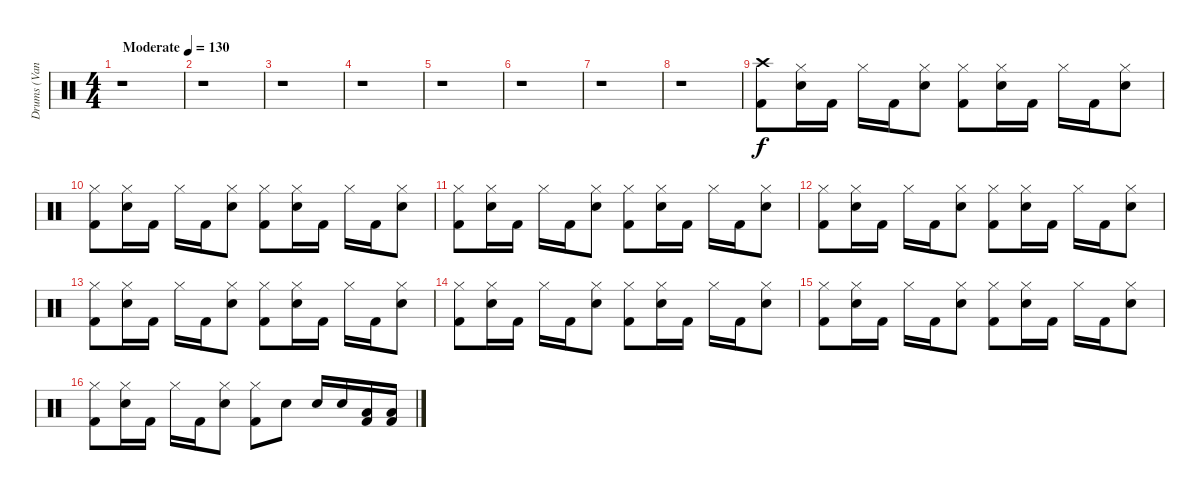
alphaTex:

\track ("Drums (Vandel)" "Drums (Van") {instrument percussion}
\staff {score}
\articulation defaults
\ts (4 4)
\tempo (130 "Moderate")
\clef neutral
\ks c
r.1{dy f} |
r.1 |
r.1 |
r.1 |
r.1 |
r.1 |
r.1 |
r.1 |
("Crash high (hit)" "Kick (hit) 2").8 ("Hi-Hat (closed)" "Snare (hit) 2").16 "Kick (hit) 2".16 "Hi-Hat (closed)".16 "Kick (hit) 2".16 ("Hi-Hat (closed)" "Snare (hit) 2").8 ("Hi-Hat (closed)" "Kick (hit) 2").8 ("Hi-Hat (closed)" "Snare (hit) 2").16 "Kick (hit) 2".16 "Hi-Hat (closed)".16 "Kick (hit) 2".16 ("Hi-Hat (closed)" "Snare (hit) 2").8 |
("Hi-Hat (closed)" "Kick (hit) 2").8 ("Hi-Hat (closed)" "Snare (hit) 2").16 "Kick (hit) 2".16 "Hi-Hat (closed)".16 "Kick (hit) 2".16 ("Hi-Hat (closed)" "Snare (hit) 2").8 ("Hi-Hat (closed)" "Kick (hit) 2").8 ("Hi-Hat (closed)" "Snare (hit) 2").16 "Kick (hit) 2".16 "Hi-Hat (closed)".16 "Kick (hit) 2".16 ("Hi-Hat (closed)" "Snare (hit) 2").8 |
("Hi-Hat (closed)" "Kick (hit) 2").8 ("Hi-Hat (closed)" "Snare (hit) 2").16 "Kick (hit) 2".16 "Hi-Hat (closed)".16 "Kick (hit) 2".16 ("Hi-Hat (closed)" "Snare (hit) 2").8 ("Hi-Hat (closed)" "Kick (hit) 2").8 ("Hi-Hat (closed)" "Snare (hit) 2").16 "Kick (hit) 2".16 "Hi-Hat (closed)".16 "Kick (hit) 2".16 ("Hi-Hat (closed)" "Snare (hit) 2").8 |
("Hi-Hat (closed)" "Kick (hit) 2").8 ("Hi-Hat (closed)" "Snare (hit) 2").16 "Kick (hit) 2".16 "Hi-Hat (closed)".16 "Kick (hit) 2".16 ("Hi-Hat (closed)" "Snare (hit) 2").8 ("Hi-Hat (closed)" "Kick (hit) 2").8 ("Hi-Hat (closed)" "Snare (hit) 2").16 "Kick (hit) 2".16 "Hi-Hat (closed)".16 "Kick (hit) 2".16 ("Hi-Hat (closed)" "Snare (hit) 2").8 |
("Hi-Hat (closed)" "Kick (hit) 2").8 ("Hi-Hat (closed)" "Snare (hit) 2").16 "Kick (hit) 2".16 "Hi-Hat (closed)".16 "Kick (hit) 2".16 ("Hi-Hat (closed)" "Snare (hit) 2").8 ("Hi-Hat (closed)" "Kick (hit) 2").8 ("Hi-Hat (closed)" "Snare (hit) 2").16 "Kick (hit) 2".16 "Hi-Hat (closed)".16 "Kick (hit) 2".16 ("Hi-Hat (closed)" "Snare (hit) 2").8 |
("Hi-Hat (closed)" "Kick (hit) 2").8 ("Hi-Hat (closed)" "Snare (hit) 2").16 "Kick (hit) 2".16 "Hi-Hat (closed)".16 "Kick (hit) 2".16 ("Hi-Hat (closed)" "Snare (hit) 2").8 ("Hi-Hat (closed)" "Kick (hit) 2").8 ("Hi-Hat (closed)" "Snare (hit) 2").16 "Kick (hit) 2".16 "Hi-Hat (closed)".16 "Kick (hit) 2".16 ("Hi-Hat (closed)" "Snare (hit) 2").8 |
("Hi-Hat (closed)" "Kick (hit) 2").8 ("Hi-Hat (closed)" "Snare (hit) 2").16 "Kick (hit) 2".16 "Hi-Hat (closed)".16 "Kick (hit) 2".16 ("Hi-Hat (closed)" "Snare (hit) 2").8 ("Hi-Hat (closed)" "Kick (hit) 2").8 ("Hi-Hat (closed)" "Snare (hit) 2").16 "Kick (hit) 2".16 "Hi-Hat (closed)".16 "Kick (hit) 2".16 ("Hi-Hat (closed)" "Snare (hit) 2").8 |
("Hi-Hat (closed)" "Kick (hit) 2").8 ("Hi-Hat (closed)" "Snare (hit) 2").16 "Kick (hit) 2".16 "Hi-Hat (closed)".16 "Kick (hit) 2".16 ("Hi-Hat (closed)" "Snare (hit) 2").8 ("Hi-Hat (closed)" "Kick (hit) 2").8 "Snare (hit) 2".8 "Snare (hit) 2".16 "Snare (hit) 2".16 ("Low Floor Tom (hit)" "Kick (hit) 2").16 ("Low Floor Tom (hit)" "Kick (hit) 2").16
